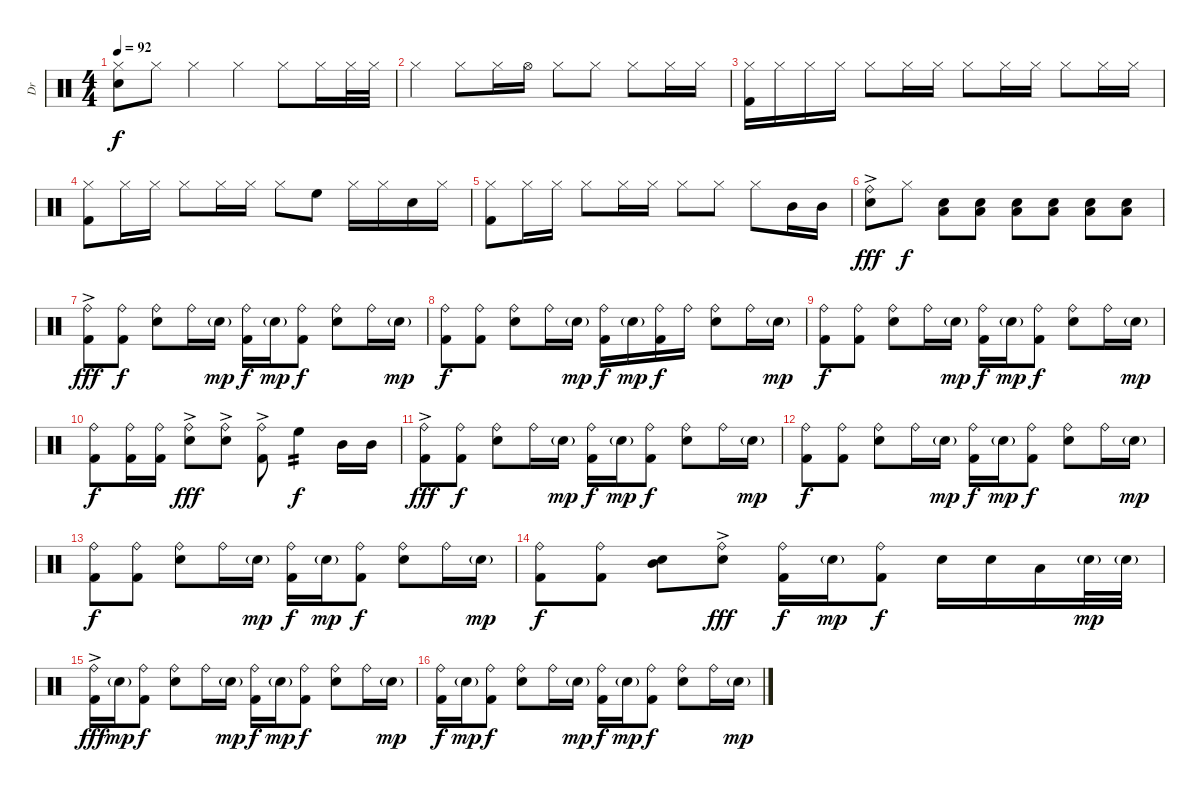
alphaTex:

\track ("Dr" "Dr") {instrument percussion}
\staff {score}
\articulation defaults
\ts (4 4)
\tempo 92
\clef neutral
\ks c
("Hi-Hat (closed)" "Electric Snare (hit)").8{dy f} "Hi-Hat (closed)".8 "Hi-Hat (closed)".4 "Hi-Hat (closed)".4 "Hi-Hat (closed)".8 "Hi-Hat (closed)".16 "Hi-Hat (closed)".32 "Hi-Hat (closed)".32 |
"Hi-Hat (closed)".4 "Hi-Hat (closed)".8 "Hi-Hat (closed)".16 "Hi-Hat (open)".16 "Hi-Hat (closed)".8 "Hi-Hat (closed)".8 "Hi-Hat (closed)".8 "Hi-Hat (closed)".16 "Hi-Hat (closed)".16 |
("Hi-Hat (closed)" "Kick (hit) 2").16 "Hi-Hat (closed)".16 "Hi-Hat (closed)".16 "Hi-Hat (closed)".16 "Hi-Hat (closed)".8 "Hi-Hat (closed)".16 "Hi-Hat (closed)".16 "Hi-Hat (closed)".8 "Hi-Hat (closed)".16 "Hi-Hat (closed)".16 "Hi-Hat (closed)".8 "Hi-Hat (closed)".16 "Hi-Hat (closed)".16 |
("Hi-Hat (closed)" "Kick (hit) 2").8 "Hi-Hat (closed)".16 "Hi-Hat (closed)".16 "Hi-Hat (closed)".8 "Hi-Hat (closed)".16 "Hi-Hat (closed)".16 "Hi-Hat (closed)".8 "High Floor Tom (hit)".8 "Hi-Hat (closed)".16 "Hi-Hat (closed)".16 "Electric Snare (hit)".16 "Hi-Hat (closed)".16 |
("Hi-Hat (closed)" "Kick (hit) 2").8 "Hi-Hat (closed)".16 "Hi-Hat (closed)".16 "Hi-Hat (closed)".8 "Hi-Hat (closed)".16 "Hi-Hat (closed)".16 "Hi-Hat (closed)".8 "Hi-Hat (closed)".8 "Hi-Hat (closed)".8 "Mid Tom (hit)".16 "Mid Tom (hit)".16 |
("Ride (bell)"{ac} "Electric Snare (hit)"{ac}).8{dy fff} "Hi-Hat (closed)".8{dy f} ("Electric Snare (hit)" "Low Tom (hit)").8 ("Electric Snare (hit)" "Low Tom (hit)").8 ("Electric Snare (hit)" "Low Tom (hit)").8 ("Electric Snare (hit)" "Low Tom (hit)").8 ("Electric Snare (hit)" "Low Tom (hit)").8 ("Electric Snare (hit)" "Low Tom (hit)").8 |
("Ride (bell)"{ac} "Kick (hit) 2"{ac}).8{dy fff} ("Ride (bell)" "Kick (hit) 2").8{dy f} ("Ride (bell)" "Electric Snare (hit)").8 "Ride (bell)".16 "Electric Snare (hit)"{g}.16{dy mp} ("Ride (bell)" "Kick (hit) 2").16{dy f} "Electric Snare (hit)"{g}.16{dy mp} ("Ride (bell)" "Kick (hit) 2").8{dy f} ("Ride (bell)" "Electric Snare (hit)").8 "Ride (bell)".16 "Electric Snare (hit)"{g}.16{dy mp} |
("Ride (bell)" "Kick (hit) 2").8{dy f} ("Ride (bell)" "Kick (hit) 2").8 ("Ride (bell)" "Electric Snare (hit)").8 "Ride (bell)".16 "Electric Snare (hit)"{g}.16{dy mp} ("Ride (bell)" "Kick (hit) 2").16{dy f} "Electric Snare (hit)"{g}.16{dy mp} ("Ride (bell)" "Kick (hit) 2").16{dy f} "Ride (bell)".16 ("Ride (bell)" "Electric Snare (hit)").8 "Ride (bell)".16 "Electric Snare (hit)"{g}.16{dy mp} |
("Ride (bell)" "Kick (hit) 2").8{dy f} ("Ride (bell)" "Kick (hit) 2").8 ("Ride (bell)" "Electric Snare (hit)").8 "Ride (bell)".16 "Electric Snare (hit)"{g}.16{dy mp} ("Ride (bell)" "Kick (hit) 2").16{dy f} "Electric Snare (hit)"{g}.16{dy mp} ("Ride (bell)" "Kick (hit) 2").8{dy f} ("Ride (bell)" "Electric Snare (hit)").8 "Ride (bell)".16 "Electric Snare (hit)"{g}.16{dy mp} |
("Ride (bell)" "Kick (hit) 2").8{dy f} ("Ride (bell)" "Kick (hit) 2").16 ("Ride (bell)" "Kick (hit) 2").16 ("Ride (bell)"{ac} "Electric Snare (hit)"{ac}).8{dy fff} ("Ride (bell)"{ac} "Electric Snare (hit)"{ac}).8 ("Ride (bell)"{ac} "Kick (hit) 2"{ac}).8 "High Floor Tom (hit)".4{tp 2 dy f} "Mid Tom (hit)".16 "Mid Tom (hit)".16 |
("Ride (bell)"{ac} "Kick (hit) 2"{ac}).8{dy fff} ("Ride (bell)" "Kick (hit) 2").8{dy f} ("Ride (bell)" "Electric Snare (hit)").8 "Ride (bell)".16 "Electric Snare (hit)"{g}.16{dy mp} ("Ride (bell)" "Kick (hit) 2").16{dy f} "Electric Snare (hit)"{g}.16{dy mp} ("Ride (bell)" "Kick (hit) 2").8{dy f} ("Ride (bell)" "Electric Snare (hit)").8 "Ride (bell)".16 "Electric Snare (hit)"{g}.16{dy mp} |
("Ride (bell)" "Kick (hit) 2").8{dy f} ("Ride (bell)" "Kick (hit) 2").8 ("Ride (bell)" "Electric Snare (hit)").8 "Ride (bell)".16 "Electric Snare (hit)"{g}.16{dy mp} ("Ride (bell)" "Kick (hit) 2").16{dy f} "Electric Snare (hit)"{g}.16{dy mp} ("Ride (bell)" "Kick (hit) 2").8{dy f} ("Ride (bell)" "Electric Snare (hit)").8 "Ride (bell)".16 "Electric Snare (hit)"{g}.16{dy mp} |
("Ride (bell)" "Kick (hit) 2").8{dy f} ("Ride (bell)" "Kick (hit) 2").8 ("Ride (bell)" "Electric Snare (hit)").8 "Ride (bell)".16 "Electric Snare (hit)"{g}.16{dy mp} ("Ride (bell)" "Kick (hit) 2").16{dy f} "Electric Snare (hit)"{g}.16{dy mp} ("Ride (bell)" "Kick (hit) 2").8{dy f} ("Ride (bell)" "Electric Snare (hit)").8 "Ride (bell)".16 "Electric Snare (hit)"{g}.16{dy mp} |
("Ride (bell)" "Kick (hit) 2").8{dy f} ("Ride (bell)" "Kick (hit) 2").8 ("Electric Snare (hit)" "Mid Tom (hit)").8 ("Ride (bell)"{ac} "Electric Snare (hit)"{ac}).8{dy fff} ("Ride (bell)" "Kick (hit) 2").16{dy f} "Electric Snare (hit)"{g}.16{dy mp} ("Ride (bell)" "Kick (hit) 2").8{dy f} "Electric Snare (hit)".16 "Electric Snare (hit)".16 "Low Tom (hit)".16 "Electric Snare (hit)"{g}.32{dy mp} "Electric Snare (hit)"{g}.32 |
("Ride (bell)"{ac} "Kick (hit) 2"{ac}).16{dy fff} "Electric Snare (hit)"{g}.16{dy mp} ("Ride (bell)" "Kick (hit) 2").8{dy f} ("Ride (bell)" "Electric Snare (hit)").8 "Ride (bell)".16 "Electric Snare (hit)"{g}.16{dy mp} ("Ride (bell)" "Kick (hit) 2").16{dy f} "Electric Snare (hit)"{g}.16{dy mp} ("Ride (bell)" "Kick (hit) 2").8{dy f} ("Ride (bell)" "Electric Snare (hit)").8 "Ride (bell)".16 "Electric Snare (hit)"{g}.16{dy mp} |
("Ride (bell)" "Kick (hit) 2").16{dy f} "Electric Snare (hit)"{g}.16{dy mp} ("Ride (bell)" "Kick (hit) 2").8{dy f} ("Ride (bell)" "Electric Snare (hit)").8 "Ride (bell)".16 "Electric Snare (hit)"{g}.16{dy mp} ("Ride (bell)" "Kick (hit) 2").16{dy f} "Electric Snare (hit)"{g}.16{dy mp} ("Ride (bell)" "Kick (hit) 2").8{dy f} ("Ride (bell)" "Electric Snare (hit)").8 "Ride (bell)".16 "Electric Snare (hit)"{g}.16{dy mp}
